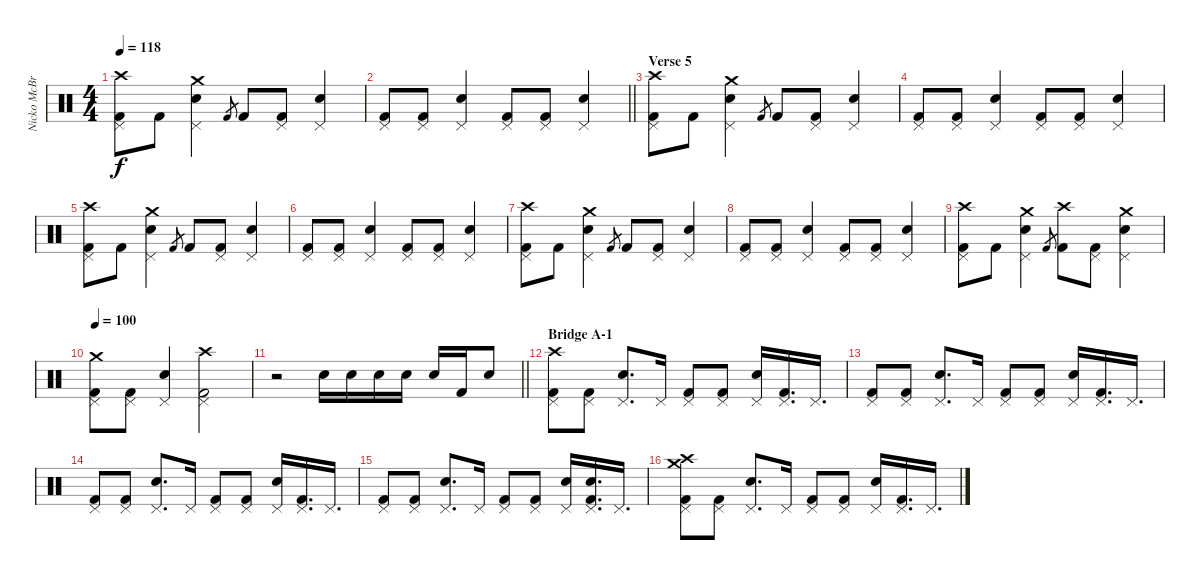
\track ("Nicko McBrain" "Nicko McBr") {instrument percussion}
\staff {score}
\articulation defaults
\ts (4 4)
\tempo 118
\clef neutral
\ks c
("Crash high (hit)" "Pedal Hi-Hat (hit)" "Kick (hit) 2").8{dy f} "Kick (hit) 2".8 ("Pedal Hi-Hat (hit)" "Electric Snare (hit)" "Crash medium (hit)").4 "Kick (hit) 2".8{gr} "Kick (hit) 2".8 ("Pedal Hi-Hat (hit)" "Kick (hit) 2").8 ("Pedal Hi-Hat (hit)" "Electric Snare (hit)").4 |
\barLineRight lightlight
("Pedal Hi-Hat (hit)" "Kick (hit) 2").8 ("Pedal Hi-Hat (hit)" "Kick (hit) 2").8 ("Pedal Hi-Hat (hit)" "Electric Snare (hit)").4 ("Pedal Hi-Hat (hit)" "Kick (hit) 2").8 ("Pedal Hi-Hat (hit)" "Kick (hit) 2").8 ("Pedal Hi-Hat (hit)" "Electric Snare (hit)").4 |
\section ("" "Verse 5")
("Crash high (hit)" "Pedal Hi-Hat (hit)" "Kick (hit) 2").8 "Kick (hit) 2".8 ("Pedal Hi-Hat (hit)" "Electric Snare (hit)" "Crash medium (hit)").4 "Kick (hit) 2".8{gr} "Kick (hit) 2".8 ("Pedal Hi-Hat (hit)" "Kick (hit) 2").8 ("Pedal Hi-Hat (hit)" "Electric Snare (hit)").4 |
("Pedal Hi-Hat (hit)" "Kick (hit) 2").8 ("Pedal Hi-Hat (hit)" "Kick (hit) 2").8 ("Pedal Hi-Hat (hit)" "Electric Snare (hit)").4 ("Pedal Hi-Hat (hit)" "Kick (hit) 2").8 ("Pedal Hi-Hat (hit)" "Kick (hit) 2").8 ("Pedal Hi-Hat (hit)" "Electric Snare (hit)").4 |
("Crash high (hit)" "Pedal Hi-Hat (hit)" "Kick (hit) 2").8 "Kick (hit) 2".8 ("Pedal Hi-Hat (hit)" "Electric Snare (hit)" "Crash medium (hit)").4 "Kick (hit) 2".8{gr} "Kick (hit) 2".8 ("Pedal Hi-Hat (hit)" "Kick (hit) 2").8 ("Pedal Hi-Hat (hit)" "Electric Snare (hit)").4 |
("Pedal Hi-Hat (hit)" "Kick (hit) 2").8 ("Pedal Hi-Hat (hit)" "Kick (hit) 2").8 ("Pedal Hi-Hat (hit)" "Electric Snare (hit)").4 ("Pedal Hi-Hat (hit)" "Kick (hit) 2").8 ("Pedal Hi-Hat (hit)" "Kick (hit) 2").8 ("Pedal Hi-Hat (hit)" "Electric Snare (hit)").4 |
("Crash high (hit)" "Pedal Hi-Hat (hit)" "Kick (hit) 2").8 "Kick (hit) 2".8 ("Pedal Hi-Hat (hit)" "Electric Snare (hit)" "Crash medium (hit)").4 "Kick (hit) 2".8{gr} "Kick (hit) 2".8 ("Pedal Hi-Hat (hit)" "Kick (hit) 2").8 ("Pedal Hi-Hat (hit)" "Electric Snare (hit)").4 |
("Pedal Hi-Hat (hit)" "Kick (hit) 2").8 ("Pedal Hi-Hat (hit)" "Kick (hit) 2").8 ("Pedal Hi-Hat (hit)" "Electric Snare (hit)").4 ("Pedal Hi-Hat (hit)" "Kick (hit) 2").8 ("Pedal Hi-Hat (hit)" "Kick (hit) 2").8 ("Pedal Hi-Hat (hit)" "Electric Snare (hit)").4 |
("Crash high (hit)" "Pedal Hi-Hat (hit)" "Kick (hit) 2").8 "Kick (hit) 2".8 ("Pedal Hi-Hat (hit)" "Electric Snare (hit)" "Crash medium (hit)").4 "Kick (hit) 2".8{gr} ("Crash high (hit)" "Kick (hit) 2").8 ("Pedal Hi-Hat (hit)" "Kick (hit) 2").8 ("Pedal Hi-Hat (hit)" "Electric Snare (hit)" "Crash medium (hit)").4 |
\tempo 100
("Pedal Hi-Hat (hit)" "Crash medium (hit)" "Kick (hit) 2").8 ("Pedal Hi-Hat (hit)" "Kick (hit) 2").8 ("Pedal Hi-Hat (hit)" "Electric Snare (hit)").4 ("Pedal Hi-Hat (hit)" "Crash high (hit)" "Kick (hit) 2").2 |
\barLineRight lightlight
r.2 "Electric Snare (hit)".16 "Electric Snare (hit)".16 "Electric Snare (hit)".16 "Electric Snare (hit)".16 "Electric Snare (hit)".16 "Kick (hit) 2".16 "Electric Snare (hit)".8 |
\section ("" "Bridge A-1")
("Pedal Hi-Hat (hit)" "Crash high (hit)" "Kick (hit) 2").8 ("Pedal Hi-Hat (hit)" "Kick (hit) 2").8 ("Electric Snare (hit)" "Pedal Hi-Hat (hit)").8{d} "Pedal Hi-Hat (hit)".16 ("Pedal Hi-Hat (hit)" "Kick (hit) 2").8 ("Pedal Hi-Hat (hit)" "Kick (hit) 2").8 ("Electric Snare (hit)" "Pedal Hi-Hat (hit)").16 ("Pedal Hi-Hat (hit)" "Kick (hit) 2").16{d} "Pedal Hi-Hat (hit)".16{d} |
("Pedal Hi-Hat (hit)" "Kick (hit) 2").8 ("Pedal Hi-Hat (hit)" "Kick (hit) 2").8 ("Electric Snare (hit)" "Pedal Hi-Hat (hit)").8{d} "Pedal Hi-Hat (hit)".16 ("Pedal Hi-Hat (hit)" "Kick (hit) 2").8 ("Pedal Hi-Hat (hit)" "Kick (hit) 2").8 ("Electric Snare (hit)" "Pedal Hi-Hat (hit)").16 ("Pedal Hi-Hat (hit)" "Kick (hit) 2").16{d} "Pedal Hi-Hat (hit)".16{d} |
("Pedal Hi-Hat (hit)" "Kick (hit) 2").8 ("Pedal Hi-Hat (hit)" "Kick (hit) 2").8 ("Electric Snare (hit)" "Pedal Hi-Hat (hit)").8{d} "Pedal Hi-Hat (hit)".16 ("Pedal Hi-Hat (hit)" "Kick (hit) 2").8 ("Pedal Hi-Hat (hit)" "Kick (hit) 2").8 ("Electric Snare (hit)" "Pedal Hi-Hat (hit)").16 ("Pedal Hi-Hat (hit)" "Kick (hit) 2").16{d} "Pedal Hi-Hat (hit)".16{d} |
("Pedal Hi-Hat (hit)" "Kick (hit) 2").8 ("Pedal Hi-Hat (hit)" "Kick (hit) 2").8 ("Electric Snare (hit)" "Pedal Hi-Hat (hit)").8{d} "Pedal Hi-Hat (hit)".16 ("Pedal Hi-Hat (hit)" "Kick (hit) 2").8 ("Pedal Hi-Hat (hit)" "Kick (hit) 2").8 ("Electric Snare (hit)" "Pedal Hi-Hat (hit)").16 ("Pedal Hi-Hat (hit)" "Electric Snare (hit)" "Kick (hit) 2").16{d} "Pedal Hi-Hat (hit)".16{d} |
("Pedal Hi-Hat (hit)" "Crash high (hit)" "Crash medium (hit)" "Kick (hit) 2").8 ("Pedal Hi-Hat (hit)" "Kick (hit) 2").8 ("Electric Snare (hit)" "Pedal Hi-Hat (hit)").8{d} "Pedal Hi-Hat (hit)".16 ("Pedal Hi-Hat (hit)" "Kick (hit) 2").8 ("Pedal Hi-Hat (hit)" "Kick (hit) 2").8 ("Electric Snare (hit)" "Pedal Hi-Hat (hit)").16 ("Pedal Hi-Hat (hit)" "Kick (hit) 2").16{d} "Pedal Hi-Hat (hit)".16{d}
